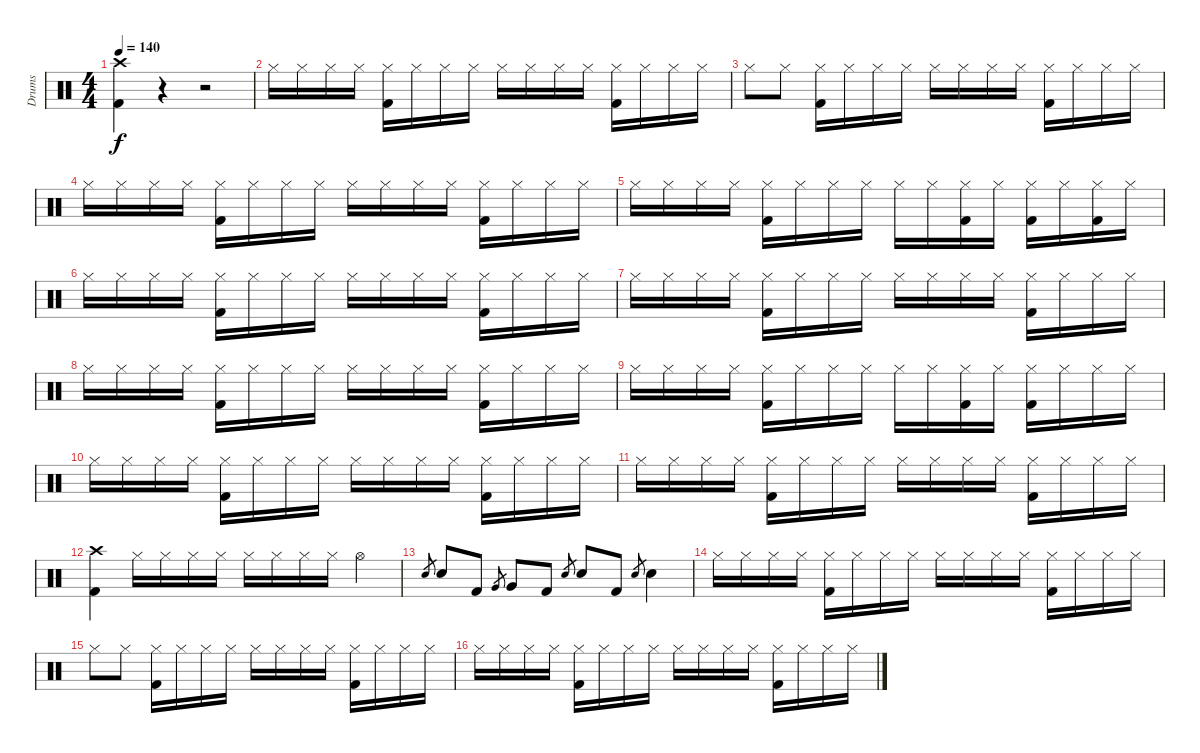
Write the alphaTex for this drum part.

\track ("Drums" "Drums") {instrument percussion}
\staff {score}
\articulation defaults
\ts (4 4)
\tempo 140
\clef neutral
\ks c
("Crash high (hit)" "Kick (hit) 2").4{dy f} r.4 r.2 |
"Hi-Hat (closed)".16 "Hi-Hat (closed)".16 "Hi-Hat (closed)".16 "Hi-Hat (closed)".16 ("Hi-Hat (closed)" "Kick (hit) 2").16 "Hi-Hat (closed)".16 "Hi-Hat (closed)".16 "Hi-Hat (closed)".16 "Hi-Hat (closed)".16 "Hi-Hat (closed)".16 "Hi-Hat (closed)".16 "Hi-Hat (closed)".16 ("Hi-Hat (closed)" "Kick (hit) 2").16 "Hi-Hat (closed)".16 "Hi-Hat (closed)".16 "Hi-Hat (closed)".16 |
"Hi-Hat (closed)".8 "Hi-Hat (closed)".8 ("Hi-Hat (closed)" "Kick (hit) 2").16 "Hi-Hat (closed)".16 "Hi-Hat (closed)".16 "Hi-Hat (closed)".16 "Hi-Hat (closed)".16 "Hi-Hat (closed)".16 "Hi-Hat (closed)".16 "Hi-Hat (closed)".16 ("Hi-Hat (closed)" "Kick (hit) 2").16 "Hi-Hat (closed)".16 "Hi-Hat (closed)".16 "Hi-Hat (closed)".16 |
"Hi-Hat (closed)".16 "Hi-Hat (closed)".16 "Hi-Hat (closed)".16 "Hi-Hat (closed)".16 ("Hi-Hat (closed)" "Kick (hit) 2").16 "Hi-Hat (closed)".16 "Hi-Hat (closed)".16 "Hi-Hat (closed)".16 "Hi-Hat (closed)".16 "Hi-Hat (closed)".16 "Hi-Hat (closed)".16 "Hi-Hat (closed)".16 ("Hi-Hat (closed)" "Kick (hit) 2").16 "Hi-Hat (closed)".16 "Hi-Hat (closed)".16 "Hi-Hat (closed)".16 |
"Hi-Hat (closed)".16 "Hi-Hat (closed)".16 "Hi-Hat (closed)".16 "Hi-Hat (closed)".16 ("Hi-Hat (closed)" "Kick (hit) 2").16 "Hi-Hat (closed)".16 "Hi-Hat (closed)".16 "Hi-Hat (closed)".16 "Hi-Hat (closed)".16 "Hi-Hat (closed)".16 ("Hi-Hat (closed)" "Kick (hit) 2").16 "Hi-Hat (closed)".16 ("Hi-Hat (closed)" "Kick (hit) 2").16 "Hi-Hat (closed)".16 ("Hi-Hat (closed)" "Kick (hit) 2").16 "Hi-Hat (closed)".16 |
"Hi-Hat (closed)".16 "Hi-Hat (closed)".16 "Hi-Hat (closed)".16 "Hi-Hat (closed)".16 ("Hi-Hat (closed)" "Kick (hit) 2").16 "Hi-Hat (closed)".16 "Hi-Hat (closed)".16 "Hi-Hat (closed)".16 "Hi-Hat (closed)".16 "Hi-Hat (closed)".16 "Hi-Hat (closed)".16 "Hi-Hat (closed)".16 ("Hi-Hat (closed)" "Kick (hit) 2").16 "Hi-Hat (closed)".16 "Hi-Hat (closed)".16 "Hi-Hat (closed)".16 |
"Hi-Hat (closed)".16 "Hi-Hat (closed)".16 "Hi-Hat (closed)".16 "Hi-Hat (closed)".16 ("Hi-Hat (closed)" "Kick (hit) 2").16 "Hi-Hat (closed)".16 "Hi-Hat (closed)".16 "Hi-Hat (closed)".16 "Hi-Hat (closed)".16 "Hi-Hat (closed)".16 "Hi-Hat (closed)".16 "Hi-Hat (closed)".16 ("Hi-Hat (closed)" "Kick (hit) 2").16 "Hi-Hat (closed)".16 "Hi-Hat (closed)".16 "Hi-Hat (closed)".16 |
"Hi-Hat (closed)".16 "Hi-Hat (closed)".16 "Hi-Hat (closed)".16 "Hi-Hat (closed)".16 ("Hi-Hat (closed)" "Kick (hit) 2").16 "Hi-Hat (closed)".16 "Hi-Hat (closed)".16 "Hi-Hat (closed)".16 "Hi-Hat (closed)".16 "Hi-Hat (closed)".16 "Hi-Hat (closed)".16 "Hi-Hat (closed)".16 ("Hi-Hat (closed)" "Kick (hit) 2").16 "Hi-Hat (closed)".16 "Hi-Hat (closed)".16 "Hi-Hat (closed)".16 |
"Hi-Hat (closed)".16 "Hi-Hat (closed)".16 "Hi-Hat (closed)".16 "Hi-Hat (closed)".16 ("Hi-Hat (closed)" "Kick (hit) 2").16 "Hi-Hat (closed)".16 "Hi-Hat (closed)".16 "Hi-Hat (closed)".16 "Hi-Hat (closed)".16 "Hi-Hat (closed)".16 ("Hi-Hat (closed)" "Kick (hit) 2").16 "Hi-Hat (closed)".16 ("Hi-Hat (closed)" "Kick (hit) 2").16 "Hi-Hat (closed)".16 "Hi-Hat (closed)".16 "Hi-Hat (closed)".16 |
"Hi-Hat (closed)".16 "Hi-Hat (closed)".16 "Hi-Hat (closed)".16 "Hi-Hat (closed)".16 ("Hi-Hat (closed)" "Kick (hit) 2").16 "Hi-Hat (closed)".16 "Hi-Hat (closed)".16 "Hi-Hat (closed)".16 "Hi-Hat (closed)".16 "Hi-Hat (closed)".16 "Hi-Hat (closed)".16 "Hi-Hat (closed)".16 ("Hi-Hat (closed)" "Kick (hit) 2").16 "Hi-Hat (closed)".16 "Hi-Hat (closed)".16 "Hi-Hat (closed)".16 |
"Hi-Hat (closed)".16 "Hi-Hat (closed)".16 "Hi-Hat (closed)".16 "Hi-Hat (closed)".16 ("Hi-Hat (closed)" "Kick (hit) 2").16 "Hi-Hat (closed)".16 "Hi-Hat (closed)".16 "Hi-Hat (closed)".16 "Hi-Hat (closed)".16 "Hi-Hat (closed)".16 "Hi-Hat (closed)".16 "Hi-Hat (closed)".16 ("Hi-Hat (closed)" "Kick (hit) 2").16 "Hi-Hat (closed)".16 "Hi-Hat (closed)".16 "Hi-Hat (closed)".16 |
("Crash high (hit)" "Kick (hit) 2").4 "Hi-Hat (closed)".16 "Hi-Hat (closed)".16 "Hi-Hat (closed)".16 "Hi-Hat (closed)".16 "Hi-Hat (closed)".16 "Hi-Hat (closed)".16 "Hi-Hat (closed)".16 "Hi-Hat (closed)".16 "Hi-Hat (open)".4 |
"Electric Snare (hit)".8{gr} "Electric Snare (hit)".8 "Kick (hit) 2".8 "Very Low Tom (hit)".8{gr} "Very Low Tom (hit)".8 "Kick (hit) 2".8 "Electric Snare (hit)".8{gr} "Electric Snare (hit)".8 "Kick (hit) 2".8 "Electric Snare (hit)".8{gr} "Electric Snare (hit)".4 |
"Hi-Hat (closed)".16 "Hi-Hat (closed)".16 "Hi-Hat (closed)".16 "Hi-Hat (closed)".16 ("Hi-Hat (closed)" "Kick (hit) 2").16 "Hi-Hat (closed)".16 "Hi-Hat (closed)".16 "Hi-Hat (closed)".16 "Hi-Hat (closed)".16 "Hi-Hat (closed)".16 "Hi-Hat (closed)".16 "Hi-Hat (closed)".16 ("Hi-Hat (closed)" "Kick (hit) 2").16 "Hi-Hat (closed)".16 "Hi-Hat (closed)".16 "Hi-Hat (closed)".16 |
"Hi-Hat (closed)".8 "Hi-Hat (closed)".8 ("Hi-Hat (closed)" "Kick (hit) 2").16 "Hi-Hat (closed)".16 "Hi-Hat (closed)".16 "Hi-Hat (closed)".16 "Hi-Hat (closed)".16 "Hi-Hat (closed)".16 "Hi-Hat (closed)".16 "Hi-Hat (closed)".16 ("Hi-Hat (closed)" "Kick (hit) 2").16 "Hi-Hat (closed)".16 "Hi-Hat (closed)".16 "Hi-Hat (closed)".16 |
"Hi-Hat (closed)".16 "Hi-Hat (closed)".16 "Hi-Hat (closed)".16 "Hi-Hat (closed)".16 ("Hi-Hat (closed)" "Kick (hit) 2").16 "Hi-Hat (closed)".16 "Hi-Hat (closed)".16 "Hi-Hat (closed)".16 "Hi-Hat (closed)".16 "Hi-Hat (closed)".16 "Hi-Hat (closed)".16 "Hi-Hat (closed)".16 ("Hi-Hat (closed)" "Kick (hit) 2").16 "Hi-Hat (closed)".16 "Hi-Hat (closed)".16 "Hi-Hat (closed)".16
